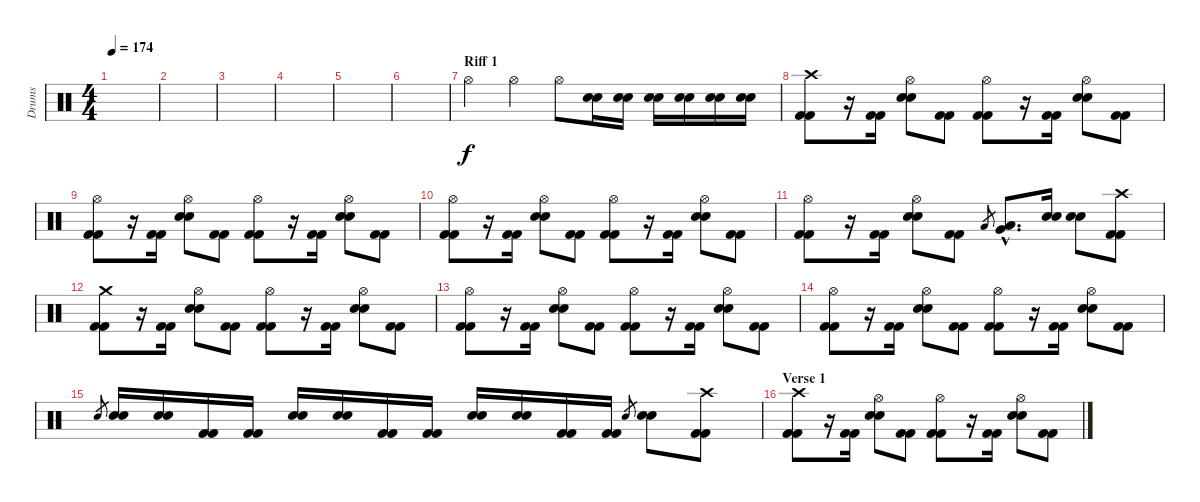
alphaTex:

\track ("Drums" "Drums") {instrument percussion}
\staff {score}
\articulation defaults
\ts (4 4)
\tempo 174
\clef neutral
\ks c
|
|
|
|
|
|
\section ("" "Riff 1")
"Hi-Hat (open)".4 "Hi-Hat (open)".4 "Hi-Hat (open)".8 ("Snare (hit) 2" "Snare (hit) 2").16 ("Snare (hit) 2" "Snare (hit) 2").16 ("Snare (hit) 2" "Snare (hit) 2").16 ("Snare (hit) 2" "Snare (hit) 2").16 ("Snare (hit) 2" "Snare (hit) 2").16 ("Snare (hit) 2" "Snare (hit) 2").16 |
("Crash high (hit)" "Kick (hit) 2" "Kick (hit) 2").8 r.16 ("Kick (hit) 2" "Kick (hit) 2").16 ("Hi-Hat (open)" "Snare (hit) 2" "Snare (hit) 2").8 ("Kick (hit) 2" "Kick (hit) 2").8 ("Hi-Hat (open)" "Kick (hit) 2" "Kick (hit) 2").8 r.16 ("Kick (hit) 2" "Kick (hit) 2").16 ("Hi-Hat (open)" "Snare (hit) 2" "Snare (hit) 2").8 ("Kick (hit) 2" "Kick (hit) 2").8 |
("Hi-Hat (open)" "Kick (hit) 2" "Kick (hit) 2").8 r.16 ("Kick (hit) 2" "Kick (hit) 2").16 ("Hi-Hat (open)" "Snare (hit) 2" "Snare (hit) 2").8 ("Kick (hit) 2" "Kick (hit) 2").8 ("Hi-Hat (open)" "Kick (hit) 2" "Kick (hit) 2").8 r.16 ("Kick (hit) 2" "Kick (hit) 2").16 ("Hi-Hat (open)" "Snare (hit) 2" "Snare (hit) 2").8 ("Kick (hit) 2" "Kick (hit) 2").8 |
("Hi-Hat (open)" "Kick (hit) 2" "Kick (hit) 2").8 r.16 ("Kick (hit) 2" "Kick (hit) 2").16 ("Hi-Hat (open)" "Snare (hit) 2" "Snare (hit) 2").8 ("Kick (hit) 2" "Kick (hit) 2").8 ("Hi-Hat (open)" "Kick (hit) 2" "Kick (hit) 2").8 r.16 ("Kick (hit) 2" "Kick (hit) 2").16 ("Hi-Hat (open)" "Snare (hit) 2" "Snare (hit) 2").8 ("Kick (hit) 2" "Kick (hit) 2").8 |
("Hi-Hat (open)" "Kick (hit) 2" "Kick (hit) 2").8 r.16 ("Kick (hit) 2" "Kick (hit) 2").16 ("Hi-Hat (open)" "Snare (hit) 2" "Snare (hit) 2").8 ("Kick (hit) 2" "Kick (hit) 2").8 "Low Tom (hit)".8{gr} ("Low Tom (hit)"{hac} "Very Low Tom (hit)"{hac}).8{d} ("Snare (hit) 2" "Snare (hit) 2").16 ("Snare (hit) 2" "Snare (hit) 2").8 ("Crash high (hit)" "Kick (hit) 2" "Kick (hit) 2").8 |
("Crash medium (hit)" "Kick (hit) 2" "Kick (hit) 2").8 r.16 ("Kick (hit) 2" "Kick (hit) 2").16 ("Hi-Hat (open)" "Snare (hit) 2" "Snare (hit) 2").8 ("Kick (hit) 2" "Kick (hit) 2").8 ("Hi-Hat (open)" "Kick (hit) 2" "Kick (hit) 2").8 r.16 ("Kick (hit) 2" "Kick (hit) 2").16 ("Hi-Hat (open)" "Snare (hit) 2" "Snare (hit) 2").8 ("Kick (hit) 2" "Kick (hit) 2").8 |
("Hi-Hat (open)" "Kick (hit) 2" "Kick (hit) 2").8 r.16 ("Kick (hit) 2" "Kick (hit) 2").16 ("Hi-Hat (open)" "Snare (hit) 2" "Snare (hit) 2").8 ("Kick (hit) 2" "Kick (hit) 2").8 ("Hi-Hat (open)" "Kick (hit) 2" "Kick (hit) 2").8 r.16 ("Kick (hit) 2" "Kick (hit) 2").16 ("Hi-Hat (open)" "Snare (hit) 2" "Snare (hit) 2").8 ("Kick (hit) 2" "Kick (hit) 2").8 |
("Hi-Hat (open)" "Kick (hit) 2" "Kick (hit) 2").8 r.16 ("Kick (hit) 2" "Kick (hit) 2").16 ("Hi-Hat (open)" "Snare (hit) 2" "Snare (hit) 2").8 ("Kick (hit) 2" "Kick (hit) 2").8 ("Hi-Hat (open)" "Kick (hit) 2" "Kick (hit) 2").8 r.16 ("Kick (hit) 2" "Kick (hit) 2").16 ("Hi-Hat (open)" "Snare (hit) 2" "Snare (hit) 2").8 ("Kick (hit) 2" "Kick (hit) 2").8 |
"Snare (hit) 2".8{gr} ("Snare (hit) 2" "Snare (hit) 2").16 ("Snare (hit) 2" "Snare (hit) 2").16 ("Kick (hit) 2" "Kick (hit) 2").16 ("Kick (hit) 2" "Kick (hit) 2").16 ("Snare (hit) 2" "Snare (hit) 2").16 ("Snare (hit) 2" "Snare (hit) 2").16 ("Kick (hit) 2" "Kick (hit) 2").16 ("Kick (hit) 2" "Kick (hit) 2").16 ("Snare (hit) 2" "Snare (hit) 2").16 ("Snare (hit) 2" "Snare (hit) 2").16 ("Kick (hit) 2" "Kick (hit) 2").16 ("Kick (hit) 2" "Kick (hit) 2").16 "Snare (hit) 2".8{gr} ("Snare (hit) 2" "Snare (hit) 2").8 ("Crash high (hit)" "Kick (hit) 2" "Kick (hit) 2").8 |
\section ("" "Verse 1")
("Crash high (hit)" "Kick (hit) 2" "Kick (hit) 2").8 r.16 ("Kick (hit) 2" "Kick (hit) 2").16 ("Hi-Hat (open)" "Snare (hit) 2" "Snare (hit) 2").8 ("Kick (hit) 2" "Kick (hit) 2").8 ("Hi-Hat (open)" "Kick (hit) 2" "Kick (hit) 2").8 r.16 ("Kick (hit) 2" "Kick (hit) 2").16 ("Hi-Hat (open)" "Snare (hit) 2" "Snare (hit) 2").8 ("Kick (hit) 2" "Kick (hit) 2").8
